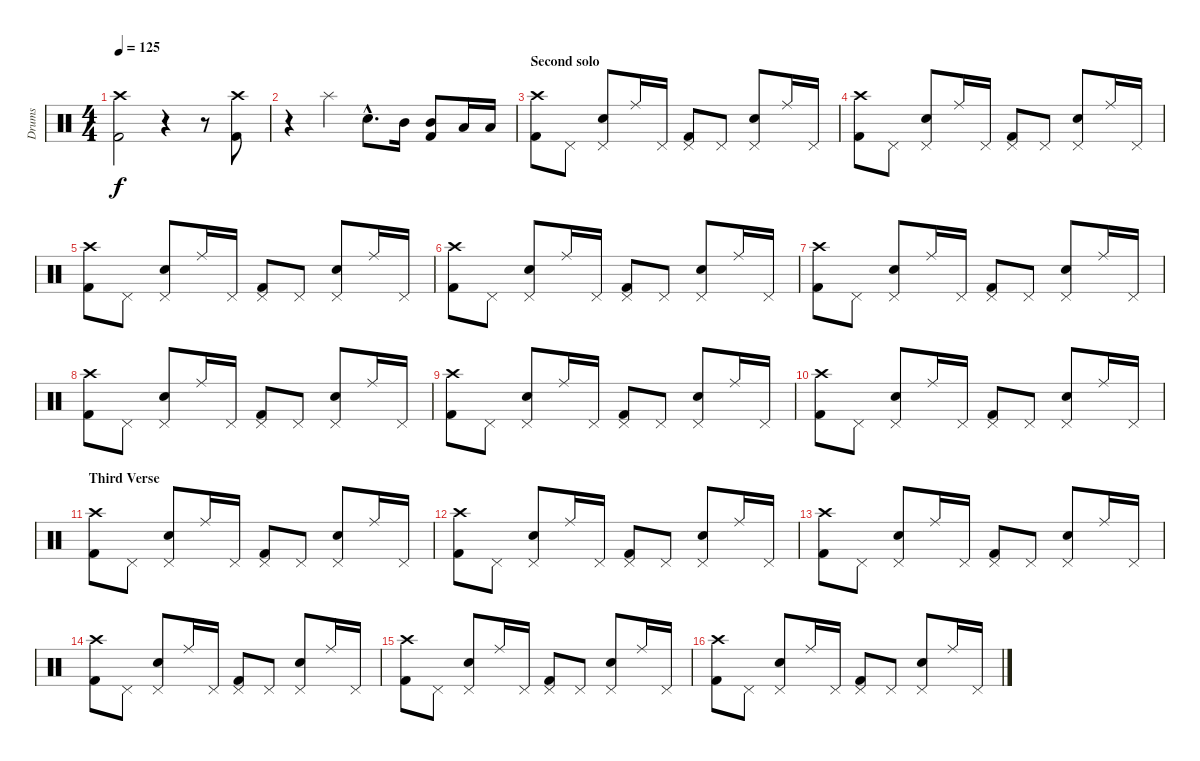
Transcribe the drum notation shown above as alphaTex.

\track ("Drums" "Drums") {instrument percussion}
\staff {score}
\articulation defaults
\ts (4 4)
\tempo 125
\clef neutral
\ks c
("Crash high (hit)" "Kick (hit) 2").2{dy f} r.4 r.8 ("Crash high (hit)" "Kick (hit) 2").8 |
r.4 "Splash (hit)".4 "Snare (hit) 2"{hac}.8{d} "Mid Tom (hit)".16 ("Kick (hit) 2" "Mid Tom (hit)").8 "Low Tom (hit)".16 "Low Tom (hit)".16 |
\section ("" "Second solo")
("Crash high (hit)" "Kick (hit) 2").8 "Pedal Hi-Hat (hit)".8 ("Pedal Hi-Hat (hit)" "Snare (hit) 2").8 "Ride (middle)".16 "Pedal Hi-Hat (hit)".16 ("Pedal Hi-Hat (hit)" "Kick (hit) 2").8 "Pedal Hi-Hat (hit)".8 ("Pedal Hi-Hat (hit)" "Snare (hit) 2").8 "Ride (middle)".16 "Pedal Hi-Hat (hit)".16 |
("Crash high (hit)" "Kick (hit) 2").8 "Pedal Hi-Hat (hit)".8 ("Pedal Hi-Hat (hit)" "Snare (hit) 2").8 "Ride (middle)".16 "Pedal Hi-Hat (hit)".16 ("Pedal Hi-Hat (hit)" "Kick (hit) 2").8 "Pedal Hi-Hat (hit)".8 ("Pedal Hi-Hat (hit)" "Snare (hit) 2").8 "Ride (middle)".16 "Pedal Hi-Hat (hit)".16 |
("Crash high (hit)" "Kick (hit) 2").8 "Pedal Hi-Hat (hit)".8 ("Pedal Hi-Hat (hit)" "Snare (hit) 2").8 "Ride (middle)".16 "Pedal Hi-Hat (hit)".16 ("Pedal Hi-Hat (hit)" "Kick (hit) 2").8 "Pedal Hi-Hat (hit)".8 ("Pedal Hi-Hat (hit)" "Snare (hit) 2").8 "Ride (middle)".16 "Pedal Hi-Hat (hit)".16 |
("Crash high (hit)" "Kick (hit) 2").8 "Pedal Hi-Hat (hit)".8 ("Pedal Hi-Hat (hit)" "Snare (hit) 2").8 "Ride (middle)".16 "Pedal Hi-Hat (hit)".16 ("Pedal Hi-Hat (hit)" "Kick (hit) 2").8 "Pedal Hi-Hat (hit)".8 ("Pedal Hi-Hat (hit)" "Snare (hit) 2").8 "Ride (middle)".16 "Pedal Hi-Hat (hit)".16 |
("Crash high (hit)" "Kick (hit) 2").8 "Pedal Hi-Hat (hit)".8 ("Pedal Hi-Hat (hit)" "Snare (hit) 2").8 "Ride (middle)".16 "Pedal Hi-Hat (hit)".16 ("Pedal Hi-Hat (hit)" "Kick (hit) 2").8 "Pedal Hi-Hat (hit)".8 ("Pedal Hi-Hat (hit)" "Snare (hit) 2").8 "Ride (middle)".16 "Pedal Hi-Hat (hit)".16 |
("Crash high (hit)" "Kick (hit) 2").8 "Pedal Hi-Hat (hit)".8 ("Pedal Hi-Hat (hit)" "Snare (hit) 2").8 "Ride (middle)".16 "Pedal Hi-Hat (hit)".16 ("Pedal Hi-Hat (hit)" "Kick (hit) 2").8 "Pedal Hi-Hat (hit)".8 ("Pedal Hi-Hat (hit)" "Snare (hit) 2").8 "Ride (middle)".16 "Pedal Hi-Hat (hit)".16 |
("Crash high (hit)" "Kick (hit) 2").8 "Pedal Hi-Hat (hit)".8 ("Pedal Hi-Hat (hit)" "Snare (hit) 2").8 "Ride (middle)".16 "Pedal Hi-Hat (hit)".16 ("Pedal Hi-Hat (hit)" "Kick (hit) 2").8 "Pedal Hi-Hat (hit)".8 ("Pedal Hi-Hat (hit)" "Snare (hit) 2").8 "Ride (middle)".16 "Pedal Hi-Hat (hit)".16 |
("Crash high (hit)" "Kick (hit) 2").8 "Pedal Hi-Hat (hit)".8 ("Pedal Hi-Hat (hit)" "Snare (hit) 2").8 "Ride (middle)".16 "Pedal Hi-Hat (hit)".16 ("Pedal Hi-Hat (hit)" "Kick (hit) 2").8 "Pedal Hi-Hat (hit)".8 ("Pedal Hi-Hat (hit)" "Snare (hit) 2").8 "Ride (middle)".16 "Pedal Hi-Hat (hit)".16 |
\section ("" "Third Verse")
("Crash high (hit)" "Kick (hit) 2").8 "Pedal Hi-Hat (hit)".8 ("Pedal Hi-Hat (hit)" "Snare (hit) 2").8 "Ride (middle)".16 "Pedal Hi-Hat (hit)".16 ("Pedal Hi-Hat (hit)" "Kick (hit) 2").8 "Pedal Hi-Hat (hit)".8 ("Pedal Hi-Hat (hit)" "Snare (hit) 2").8 "Ride (middle)".16 "Pedal Hi-Hat (hit)".16 |
("Crash high (hit)" "Kick (hit) 2").8 "Pedal Hi-Hat (hit)".8 ("Pedal Hi-Hat (hit)" "Snare (hit) 2").8 "Ride (middle)".16 "Pedal Hi-Hat (hit)".16 ("Pedal Hi-Hat (hit)" "Kick (hit) 2").8 "Pedal Hi-Hat (hit)".8 ("Pedal Hi-Hat (hit)" "Snare (hit) 2").8 "Ride (middle)".16 "Pedal Hi-Hat (hit)".16 |
("Crash high (hit)" "Kick (hit) 2").8 "Pedal Hi-Hat (hit)".8 ("Pedal Hi-Hat (hit)" "Snare (hit) 2").8 "Ride (middle)".16 "Pedal Hi-Hat (hit)".16 ("Pedal Hi-Hat (hit)" "Kick (hit) 2").8 "Pedal Hi-Hat (hit)".8 ("Pedal Hi-Hat (hit)" "Snare (hit) 2").8 "Ride (middle)".16 "Pedal Hi-Hat (hit)".16 |
("Crash high (hit)" "Kick (hit) 2").8 "Pedal Hi-Hat (hit)".8 ("Pedal Hi-Hat (hit)" "Snare (hit) 2").8 "Ride (middle)".16 "Pedal Hi-Hat (hit)".16 ("Pedal Hi-Hat (hit)" "Kick (hit) 2").8 "Pedal Hi-Hat (hit)".8 ("Pedal Hi-Hat (hit)" "Snare (hit) 2").8 "Ride (middle)".16 "Pedal Hi-Hat (hit)".16 |
("Crash high (hit)" "Kick (hit) 2").8 "Pedal Hi-Hat (hit)".8 ("Pedal Hi-Hat (hit)" "Snare (hit) 2").8 "Ride (middle)".16 "Pedal Hi-Hat (hit)".16 ("Pedal Hi-Hat (hit)" "Kick (hit) 2").8 "Pedal Hi-Hat (hit)".8 ("Pedal Hi-Hat (hit)" "Snare (hit) 2").8 "Ride (middle)".16 "Pedal Hi-Hat (hit)".16 |
("Crash high (hit)" "Kick (hit) 2").8 "Pedal Hi-Hat (hit)".8 ("Pedal Hi-Hat (hit)" "Snare (hit) 2").8 "Ride (middle)".16 "Pedal Hi-Hat (hit)".16 ("Pedal Hi-Hat (hit)" "Kick (hit) 2").8 "Pedal Hi-Hat (hit)".8 ("Pedal Hi-Hat (hit)" "Snare (hit) 2").8 "Ride (middle)".16 "Pedal Hi-Hat (hit)".16
